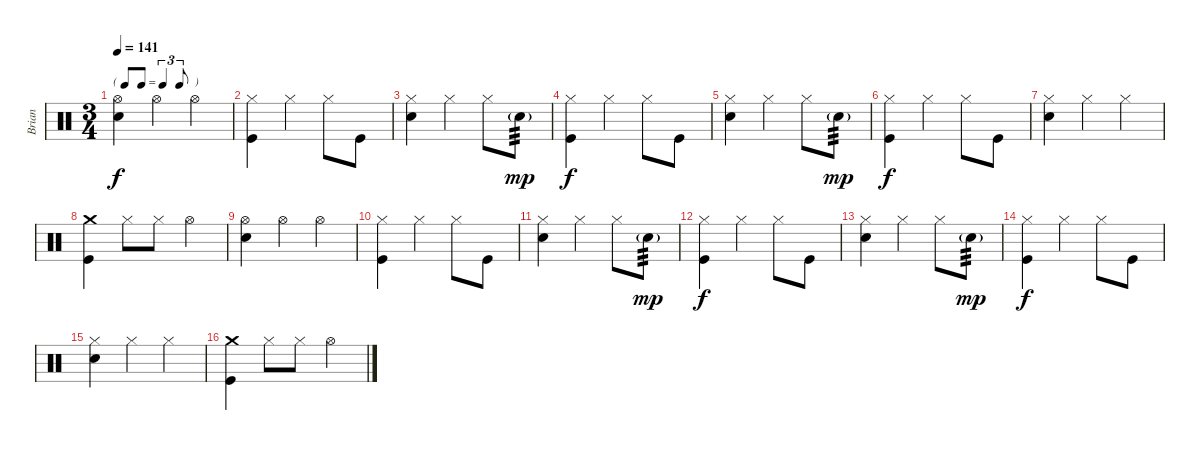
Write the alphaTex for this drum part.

\track ("Brian" "Brian") {instrument percussion}
\staff {score}
\articulation defaults
\ts (3 4)
\tf triplet8th
\tempo 141
\clef neutral
\ks c
("Hi-Hat (open)" "Electric Snare (hit)").4{dy f} "Hi-Hat (open)".4 "Hi-Hat (open)".4 |
("Hi-Hat (closed)" "Kick (hit)").4 "Hi-Hat (closed)".4 "Hi-Hat (closed)".8 "Kick (hit)".8 |
("Hi-Hat (closed)" "Electric Snare (hit)").4 "Hi-Hat (closed)".4 "Hi-Hat (closed)".8 "Electric Snare (hit)"{g}.8{tp 3 dy mp volume 7} |
("Hi-Hat (closed)" "Kick (hit)").4{dy f volume 16} "Hi-Hat (closed)".4 "Hi-Hat (closed)".8 "Kick (hit)".8 |
("Hi-Hat (closed)" "Electric Snare (hit)").4 "Hi-Hat (closed)".4 "Hi-Hat (closed)".8 "Electric Snare (hit)"{g}.8{tp 3 dy mp volume 7} |
("Hi-Hat (closed)" "Kick (hit)").4{dy f volume 16} "Hi-Hat (closed)".4 "Hi-Hat (closed)".8 "Kick (hit)".8 |
("Hi-Hat (closed)" "Electric Snare (hit)").4 "Hi-Hat (closed)".4 "Hi-Hat (closed)".4 |
("Crash medium (hit)" "Kick (hit)").4 "Hi-Hat (closed)".8 "Hi-Hat (closed)".8 "Hi-Hat (open)".4 |
("Hi-Hat (open)" "Electric Snare (hit)").4 "Hi-Hat (open)".4 "Hi-Hat (open)".4 |
("Hi-Hat (closed)" "Kick (hit)").4 "Hi-Hat (closed)".4 "Hi-Hat (closed)".8 "Kick (hit)".8 |
("Hi-Hat (closed)" "Electric Snare (hit)").4 "Hi-Hat (closed)".4 "Hi-Hat (closed)".8 "Electric Snare (hit)"{g}.8{tp 3 dy mp volume 7} |
("Hi-Hat (closed)" "Kick (hit)").4{dy f volume 16} "Hi-Hat (closed)".4 "Hi-Hat (closed)".8 "Kick (hit)".8 |
("Hi-Hat (closed)" "Electric Snare (hit)").4 "Hi-Hat (closed)".4 "Hi-Hat (closed)".8 "Electric Snare (hit)"{g}.8{tp 3 dy mp volume 7} |
("Hi-Hat (closed)" "Kick (hit)").4{dy f volume 16} "Hi-Hat (closed)".4 "Hi-Hat (closed)".8 "Kick (hit)".8 |
("Hi-Hat (closed)" "Electric Snare (hit)").4 "Hi-Hat (closed)".4 "Hi-Hat (closed)".4 |
("Crash medium (hit)" "Kick (hit)").4 "Hi-Hat (closed)".8 "Hi-Hat (closed)".8 "Hi-Hat (open)".4
